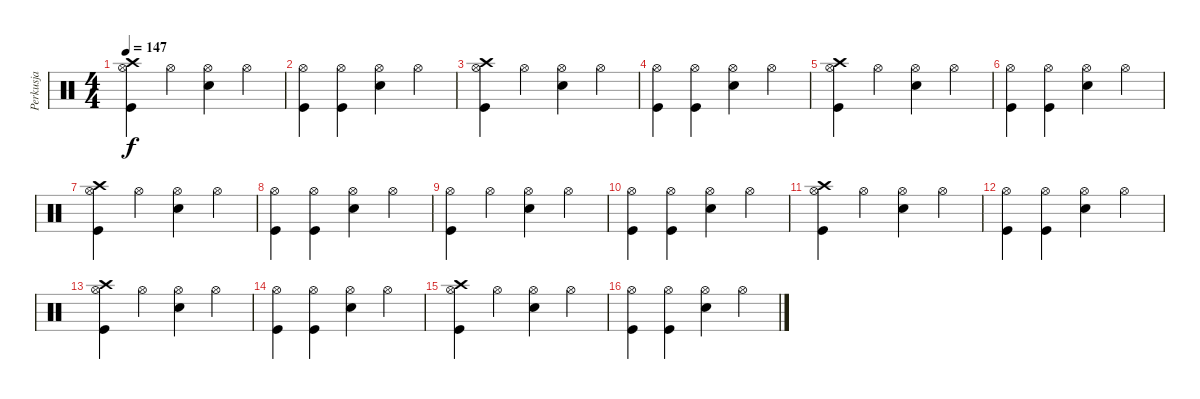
\track ("Perkusja" "Perkusja") {instrument percussion}
\staff {score}
\articulation defaults
\ts (4 4)
\tempo 147
\clef neutral
\ks c
("Crash high (hit)" "Hi-Hat (open)" "Kick (hit)").4{dy f} "Hi-Hat (open)".4 ("Hi-Hat (open)" "Electric Snare (hit)").4 "Hi-Hat (open)".4 |
("Hi-Hat (open)" "Kick (hit)").4 ("Hi-Hat (open)" "Kick (hit)").4 ("Hi-Hat (open)" "Electric Snare (hit)").4 "Hi-Hat (open)".4 |
("Crash high (hit)" "Hi-Hat (open)" "Kick (hit)").4 "Hi-Hat (open)".4 ("Hi-Hat (open)" "Electric Snare (hit)").4 "Hi-Hat (open)".4 |
("Hi-Hat (open)" "Kick (hit)").4 ("Hi-Hat (open)" "Kick (hit)").4 ("Hi-Hat (open)" "Electric Snare (hit)").4 "Hi-Hat (open)".4 |
("Crash high (hit)" "Hi-Hat (open)" "Kick (hit)").4 "Hi-Hat (open)".4 ("Hi-Hat (open)" "Electric Snare (hit)").4 "Hi-Hat (open)".4 |
("Hi-Hat (open)" "Kick (hit)").4 ("Hi-Hat (open)" "Kick (hit)").4 ("Hi-Hat (open)" "Electric Snare (hit)").4 "Hi-Hat (open)".4 |
("Crash high (hit)" "Hi-Hat (open)" "Kick (hit)").4 "Hi-Hat (open)".4 ("Hi-Hat (open)" "Electric Snare (hit)").4 "Hi-Hat (open)".4 |
("Hi-Hat (open)" "Kick (hit)").4 ("Hi-Hat (open)" "Kick (hit)").4 ("Hi-Hat (open)" "Electric Snare (hit)").4 "Hi-Hat (open)".4 |
("Hi-Hat (open)" "Kick (hit)").4 "Hi-Hat (open)".4 ("Hi-Hat (open)" "Electric Snare (hit)").4 "Hi-Hat (open)".4 |
("Hi-Hat (open)" "Kick (hit)").4 ("Hi-Hat (open)" "Kick (hit)").4 ("Hi-Hat (open)" "Electric Snare (hit)").4 "Hi-Hat (open)".4 |
("Crash high (hit)" "Hi-Hat (open)" "Kick (hit)").4 "Hi-Hat (open)".4 ("Hi-Hat (open)" "Electric Snare (hit)").4 "Hi-Hat (open)".4 |
("Hi-Hat (open)" "Kick (hit)").4 ("Hi-Hat (open)" "Kick (hit)").4 ("Hi-Hat (open)" "Electric Snare (hit)").4 "Hi-Hat (open)".4 |
("Crash high (hit)" "Hi-Hat (open)" "Kick (hit)").4 "Hi-Hat (open)".4 ("Hi-Hat (open)" "Electric Snare (hit)").4 "Hi-Hat (open)".4 |
("Hi-Hat (open)" "Kick (hit)").4 ("Hi-Hat (open)" "Kick (hit)").4 ("Hi-Hat (open)" "Electric Snare (hit)").4 "Hi-Hat (open)".4 |
("Crash high (hit)" "Hi-Hat (open)" "Kick (hit)").4 "Hi-Hat (open)".4 ("Hi-Hat (open)" "Electric Snare (hit)").4 "Hi-Hat (open)".4 |
("Hi-Hat (open)" "Kick (hit)").4 ("Hi-Hat (open)" "Kick (hit)").4 ("Hi-Hat (open)" "Electric Snare (hit)").4 "Hi-Hat (open)".4
